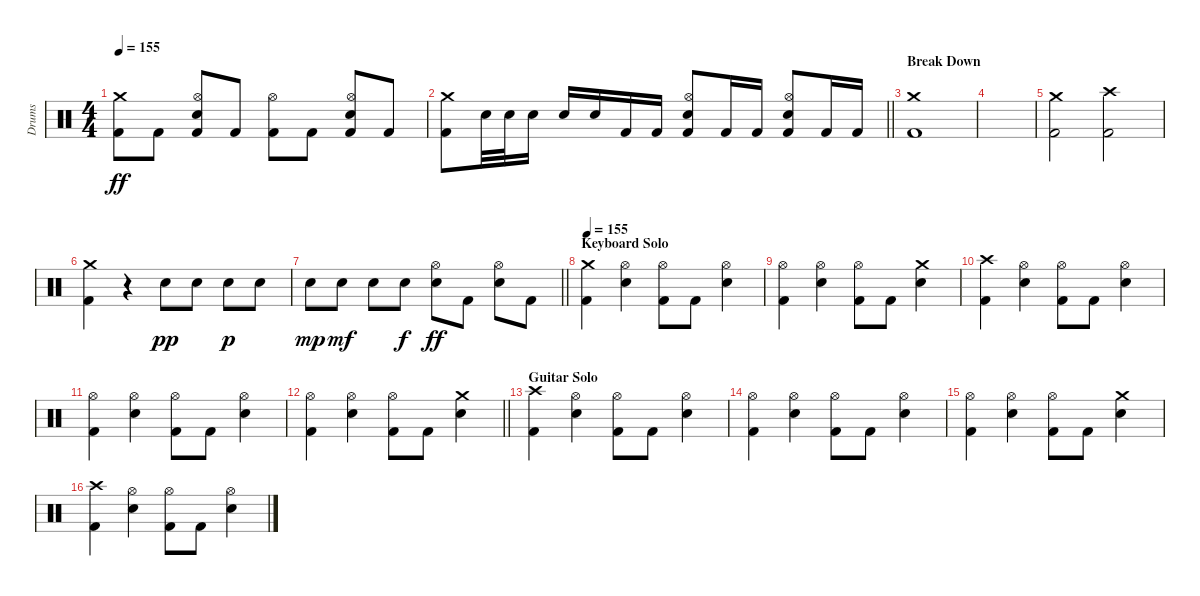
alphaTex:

\track ("Drums" "Drums") {solo instrument percussion}
\staff {score}
\articulation defaults
\ts (4 4)
\tempo 155
\clef neutral
\ks c
("Crash medium (hit)" "Kick (hit) 2").8{dy ff} "Kick (hit) 2".8 ("Hi-Hat (open)" "Electric Snare (hit)" "Kick (hit) 2").8 "Kick (hit) 2".8 ("Hi-Hat (open)" "Kick (hit) 2").8 "Kick (hit) 2".8 ("Electric Snare (hit)" "Hi-Hat (open)" "Kick (hit) 2").8 "Kick (hit) 2".8 |
\barLineRight lightlight
("Crash medium (hit)" "Kick (hit) 2").8 "Electric Snare (hit)".32 "Electric Snare (hit)".32 "Electric Snare (hit)".16 "Electric Snare (hit)".16 "Electric Snare (hit)".16 "Kick (hit) 2".16 "Kick (hit) 2".16 ("Hi-Hat (open)" "Electric Snare (hit)" "Kick (hit) 2").8 "Kick (hit) 2".16 "Kick (hit) 2".16 ("Hi-Hat (open)" "Electric Snare (hit)" "Kick (hit) 2").8 "Kick (hit) 2".16 "Kick (hit) 2".16 |
\section ("" "Break Down")
("Crash medium (hit)" "Kick (hit) 2").1 |
|
("Crash medium (hit)" "Kick (hit) 2").2 ("Crash high (hit)" "Kick (hit) 2").2 |
("Crash medium (hit)" "Kick (hit) 2").4 r.4 "Electric Snare (hit)".8{dy pp} "Electric Snare (hit)".8 "Electric Snare (hit)".8{dy p} "Electric Snare (hit)".8 |
\barLineRight lightlight "Electric Snare (hit)".8{dy mp} "Electric Snare (hit)".8{dy mf} "Electric Snare (hit)".8 "Electric Snare (hit)".8{dy f}
("Hi-Hat (open)" "Electric Snare (hit)").8{dy ff} "Kick (hit) 2".8 ("Hi-Hat (open)" "Electric Snare (hit)").8 "Kick (hit) 2".8 |
\section ("" "Keyboard Solo")
\tempo 155
("Crash medium (hit)" "Kick (hit) 2").4 ("Hi-Hat (open)" "Electric Snare (hit)").4 ("Hi-Hat (open)" "Kick (hit) 2").8 "Kick (hit) 2".8 ("Hi-Hat (open)" "Electric Snare (hit)").4 |
("Hi-Hat (open)" "Kick (hit) 2").4 ("Hi-Hat (open)" "Electric Snare (hit)").4 ("Hi-Hat (open)" "Kick (hit) 2").8 "Kick (hit) 2".8 ("Crash medium (hit)" "Electric Snare (hit)").4 |
("Crash high (hit)" "Kick (hit) 2").4 ("Hi-Hat (open)" "Electric Snare (hit)").4 ("Hi-Hat (open)" "Kick (hit) 2").8 "Kick (hit) 2".8 ("Hi-Hat (open)" "Electric Snare (hit)").4 |
("Hi-Hat (open)" "Kick (hit) 2").4 ("Hi-Hat (open)" "Electric Snare (hit)").4 ("Hi-Hat (open)" "Kick (hit) 2").8 "Kick (hit) 2".8 ("Hi-Hat (open)" "Electric Snare (hit)").4 |
\barLineRight lightlight
("Hi-Hat (open)" "Kick (hit) 2").4 ("Hi-Hat (open)" "Electric Snare (hit)").4 ("Hi-Hat (open)" "Kick (hit) 2").8 "Kick (hit) 2".8 ("Crash medium (hit)" "Electric Snare (hit)").4 |
\section ("" "Guitar Solo")
("Crash high (hit)" "Kick (hit) 2").4 ("Hi-Hat (open)" "Electric Snare (hit)").4 ("Hi-Hat (open)" "Kick (hit) 2").8 "Kick (hit) 2".8 ("Hi-Hat (open)" "Electric Snare (hit)").4 |
("Hi-Hat (open)" "Kick (hit) 2").4 ("Hi-Hat (open)" "Electric Snare (hit)").4 ("Hi-Hat (open)" "Kick (hit) 2").8 "Kick (hit) 2".8 ("Hi-Hat (open)" "Electric Snare (hit)").4 |
("Hi-Hat (open)" "Kick (hit) 2").4 ("Hi-Hat (open)" "Electric Snare (hit)").4 ("Hi-Hat (open)" "Kick (hit) 2").8 "Kick (hit) 2".8 ("Crash medium (hit)" "Electric Snare (hit)").4 |
("Crash high (hit)" "Kick (hit) 2").4 ("Hi-Hat (open)" "Electric Snare (hit)").4 ("Hi-Hat (open)" "Kick (hit) 2").8 "Kick (hit) 2".8 ("Hi-Hat (open)" "Electric Snare (hit)").4
